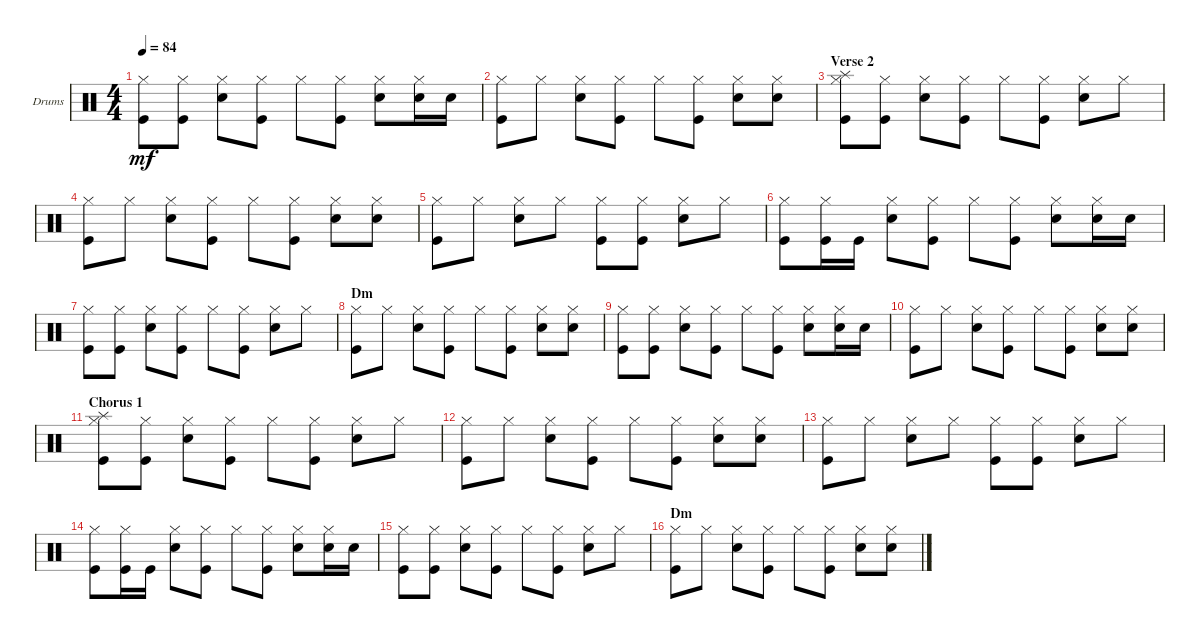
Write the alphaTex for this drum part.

\defaultSystemsLayout 4
\bracketExtendMode groupsimilarinstruments
\firstSystemTrackNameOrientation horizontal
\otherSystemsTrackNameOrientation horizontal
\track ("Drumkit" "Drums") {instrument percussion}
\staff {score}
\articulation defaults
\ts (4 4)
\tempo 84
\clef neutral
\ks c
("Hi-Hat (closed)" "Kick (hit)").8{dy mf} ("Hi-Hat (closed)" "Kick (hit)").8 ("Hi-Hat (closed)" "Snare (hit) 2").8 ("Hi-Hat (closed)" "Kick (hit)").8 "Hi-Hat (closed)".8 ("Hi-Hat (closed)" "Kick (hit)").8 ("Hi-Hat (closed)" "Snare (hit) 2").8 ("Hi-Hat (closed)" "Snare (hit) 2").16 "Snare (hit) 2".16 |
("Hi-Hat (closed)" "Kick (hit)").8 "Hi-Hat (closed)".8 ("Hi-Hat (closed)" "Snare (hit) 2").8 ("Hi-Hat (closed)" "Kick (hit)").8 "Hi-Hat (closed)".8 ("Hi-Hat (closed)" "Kick (hit)").8 ("Hi-Hat (closed)" "Snare (hit) 2").8 ("Hi-Hat (closed)" "Snare (hit) 2").8 |
\section ("" "Verse 2")
("Hi-Hat (closed)" "Kick (hit)" "Splash (hit)").8 ("Hi-Hat (closed)" "Kick (hit)").8 ("Hi-Hat (closed)" "Snare (hit) 2").8 ("Hi-Hat (closed)" "Kick (hit)").8 "Hi-Hat (closed)".8 ("Hi-Hat (closed)" "Kick (hit)").8 ("Hi-Hat (closed)" "Snare (hit) 2").8 "Hi-Hat (closed)".8 |
("Hi-Hat (closed)" "Kick (hit)").8 "Hi-Hat (closed)".8 ("Hi-Hat (closed)" "Snare (hit) 2").8 ("Hi-Hat (closed)" "Kick (hit)").8 "Hi-Hat (closed)".8 ("Hi-Hat (closed)" "Kick (hit)").8 ("Hi-Hat (closed)" "Snare (hit) 2").8 ("Hi-Hat (closed)" "Snare (hit) 2").8 |
("Hi-Hat (closed)" "Kick (hit)").8 "Hi-Hat (closed)".8 ("Hi-Hat (closed)" "Snare (hit) 2").8 "Hi-Hat (closed)".8 ("Hi-Hat (closed)" "Kick (hit)").8 ("Hi-Hat (closed)" "Kick (hit)").8 ("Hi-Hat (closed)" "Snare (hit) 2").8 "Hi-Hat (closed)".8 |
("Hi-Hat (closed)" "Kick (hit)").8 ("Hi-Hat (closed)" "Kick (hit)").16 "Kick (hit)".16 ("Hi-Hat (closed)" "Snare (hit) 2").8 ("Hi-Hat (closed)" "Kick (hit)").8 "Hi-Hat (closed)".8 ("Hi-Hat (closed)" "Kick (hit)").8 ("Hi-Hat (closed)" "Snare (hit) 2").8 ("Hi-Hat (closed)" "Snare (hit) 2").16 "Snare (hit) 2".16 |
("Hi-Hat (closed)" "Kick (hit)").8 ("Hi-Hat (closed)" "Kick (hit)").8 ("Hi-Hat (closed)" "Snare (hit) 2").8 ("Hi-Hat (closed)" "Kick (hit)").8 "Hi-Hat (closed)".8 ("Hi-Hat (closed)" "Kick (hit)").8 ("Hi-Hat (closed)" "Snare (hit) 2").8 "Hi-Hat (closed)".8 |
\section ("" "Dm")
("Hi-Hat (closed)" "Kick (hit)").8 "Hi-Hat (closed)".8 ("Hi-Hat (closed)" "Snare (hit) 2").8 ("Hi-Hat (closed)" "Kick (hit)").8 "Hi-Hat (closed)".8 ("Hi-Hat (closed)" "Kick (hit)").8 ("Hi-Hat (closed)" "Snare (hit) 2").8 ("Hi-Hat (closed)" "Snare (hit) 2").8 |
("Hi-Hat (closed)" "Kick (hit)").8 ("Hi-Hat (closed)" "Kick (hit)").8 ("Hi-Hat (closed)" "Snare (hit) 2").8 ("Hi-Hat (closed)" "Kick (hit)").8 "Hi-Hat (closed)".8 ("Hi-Hat (closed)" "Kick (hit)").8 ("Hi-Hat (closed)" "Snare (hit) 2").8 ("Hi-Hat (closed)" "Snare (hit) 2").16 "Snare (hit) 2".16 |
("Hi-Hat (closed)" "Kick (hit)").8 "Hi-Hat (closed)".8 ("Hi-Hat (closed)" "Snare (hit) 2").8 ("Hi-Hat (closed)" "Kick (hit)").8 "Hi-Hat (closed)".8 ("Hi-Hat (closed)" "Kick (hit)").8 ("Hi-Hat (closed)" "Snare (hit) 2").8 ("Hi-Hat (closed)" "Snare (hit) 2").8 |
\section ("" "Chorus 1")
("Hi-Hat (closed)" "Kick (hit)" "Splash (hit)").8 ("Hi-Hat (closed)" "Kick (hit)").8 ("Hi-Hat (closed)" "Snare (hit) 2").8 ("Hi-Hat (closed)" "Kick (hit)").8 "Hi-Hat (closed)".8 ("Hi-Hat (closed)" "Kick (hit)").8 ("Hi-Hat (closed)" "Snare (hit) 2").8 "Hi-Hat (closed)".8 |
("Hi-Hat (closed)" "Kick (hit)").8 "Hi-Hat (closed)".8 ("Hi-Hat (closed)" "Snare (hit) 2").8 ("Hi-Hat (closed)" "Kick (hit)").8 "Hi-Hat (closed)".8 ("Hi-Hat (closed)" "Kick (hit)").8 ("Hi-Hat (closed)" "Snare (hit) 2").8 ("Hi-Hat (closed)" "Snare (hit) 2").8 |
("Hi-Hat (closed)" "Kick (hit)").8 "Hi-Hat (closed)".8 ("Hi-Hat (closed)" "Snare (hit) 2").8 "Hi-Hat (closed)".8 ("Hi-Hat (closed)" "Kick (hit)").8 ("Hi-Hat (closed)" "Kick (hit)").8 ("Hi-Hat (closed)" "Snare (hit) 2").8 "Hi-Hat (closed)".8 |
("Hi-Hat (closed)" "Kick (hit)").8 ("Hi-Hat (closed)" "Kick (hit)").16 "Kick (hit)".16 ("Hi-Hat (closed)" "Snare (hit) 2").8 ("Hi-Hat (closed)" "Kick (hit)").8 "Hi-Hat (closed)".8 ("Hi-Hat (closed)" "Kick (hit)").8 ("Hi-Hat (closed)" "Snare (hit) 2").8 ("Hi-Hat (closed)" "Snare (hit) 2").16 "Snare (hit) 2".16 |
("Hi-Hat (closed)" "Kick (hit)").8 ("Hi-Hat (closed)" "Kick (hit)").8 ("Hi-Hat (closed)" "Snare (hit) 2").8 ("Hi-Hat (closed)" "Kick (hit)").8 "Hi-Hat (closed)".8 ("Hi-Hat (closed)" "Kick (hit)").8 ("Hi-Hat (closed)" "Snare (hit) 2").8 "Hi-Hat (closed)".8 |
\section ("" "Dm")
("Hi-Hat (closed)" "Kick (hit)").8 "Hi-Hat (closed)".8 ("Hi-Hat (closed)" "Snare (hit) 2").8 ("Hi-Hat (closed)" "Kick (hit)").8 "Hi-Hat (closed)".8 ("Hi-Hat (closed)" "Kick (hit)").8 ("Hi-Hat (closed)" "Snare (hit) 2").8 ("Hi-Hat (closed)" "Snare (hit) 2").8
